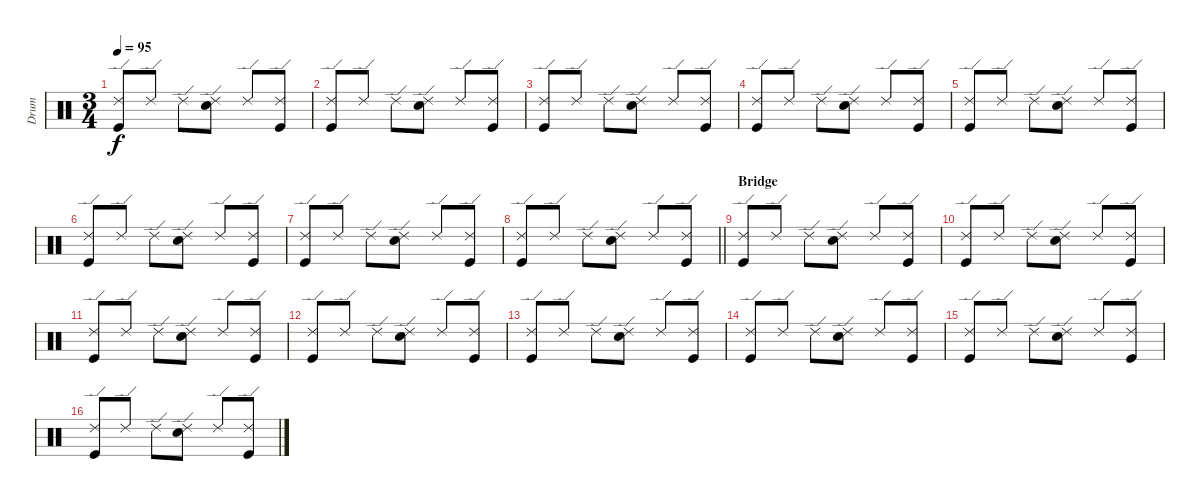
\track ("Drum" "Drum") {instrument percussion}
\staff {score}
\articulation defaults
\ts (3 4)
\tempo 95
\clef neutral
\ks c
("Kick (hit)" "Ride (edge) 2").8{dy f} "Ride (edge) 2".8 "Ride (edge) 2".8 ("Snare (hit) 2" "Ride (edge) 2").8 "Ride (edge) 2".8 ("Kick (hit)" "Ride (edge) 2").8 |
("Kick (hit)" "Ride (edge) 2").8 "Ride (edge) 2".8 "Ride (edge) 2".8 ("Snare (hit) 2" "Ride (edge) 2").8 "Ride (edge) 2".8 ("Kick (hit)" "Ride (edge) 2").8 |
("Kick (hit)" "Ride (edge) 2").8 "Ride (edge) 2".8 "Ride (edge) 2".8 ("Snare (hit) 2" "Ride (edge) 2").8 "Ride (edge) 2".8 ("Kick (hit)" "Ride (edge) 2").8 |
("Kick (hit)" "Ride (edge) 2").8 "Ride (edge) 2".8 "Ride (edge) 2".8 ("Snare (hit) 2" "Ride (edge) 2").8 "Ride (edge) 2".8 ("Kick (hit)" "Ride (edge) 2").8 |
("Kick (hit)" "Ride (edge) 2").8 "Ride (edge) 2".8 "Ride (edge) 2".8 ("Snare (hit) 2" "Ride (edge) 2").8 "Ride (edge) 2".8 ("Kick (hit)" "Ride (edge) 2").8 |
("Kick (hit)" "Ride (edge) 2").8 "Ride (edge) 2".8 "Ride (edge) 2".8 ("Snare (hit) 2" "Ride (edge) 2").8 "Ride (edge) 2".8 ("Kick (hit)" "Ride (edge) 2").8 |
("Kick (hit)" "Ride (edge) 2").8 "Ride (edge) 2".8 "Ride (edge) 2".8 ("Snare (hit) 2" "Ride (edge) 2").8 "Ride (edge) 2".8 ("Kick (hit)" "Ride (edge) 2").8 |
\barLineRight lightlight
("Kick (hit)" "Ride (edge) 2").8 "Ride (edge) 2".8 "Ride (edge) 2".8 ("Snare (hit) 2" "Ride (edge) 2").8 "Ride (edge) 2".8 ("Kick (hit)" "Ride (edge) 2").8 |
\section ("" "Bridge")
("Kick (hit)" "Ride (edge) 2").8 "Ride (edge) 2".8 "Ride (edge) 2".8 ("Snare (hit) 2" "Ride (edge) 2").8 "Ride (edge) 2".8 ("Kick (hit)" "Ride (edge) 2").8 |
("Kick (hit)" "Ride (edge) 2").8 "Ride (edge) 2".8 "Ride (edge) 2".8 ("Snare (hit) 2" "Ride (edge) 2").8 "Ride (edge) 2".8 ("Kick (hit)" "Ride (edge) 2").8 |
("Kick (hit)" "Ride (edge) 2").8 "Ride (edge) 2".8 "Ride (edge) 2".8 ("Snare (hit) 2" "Ride (edge) 2").8 "Ride (edge) 2".8 ("Kick (hit)" "Ride (edge) 2").8 |
("Kick (hit)" "Ride (edge) 2").8 "Ride (edge) 2".8 "Ride (edge) 2".8 ("Snare (hit) 2" "Ride (edge) 2").8 "Ride (edge) 2".8 ("Kick (hit)" "Ride (edge) 2").8 |
("Kick (hit)" "Ride (edge) 2").8 "Ride (edge) 2".8 "Ride (edge) 2".8 ("Snare (hit) 2" "Ride (edge) 2").8 "Ride (edge) 2".8 ("Kick (hit)" "Ride (edge) 2").8 |
("Kick (hit)" "Ride (edge) 2").8 "Ride (edge) 2".8 "Ride (edge) 2".8 ("Snare (hit) 2" "Ride (edge) 2").8 "Ride (edge) 2".8 ("Kick (hit)" "Ride (edge) 2").8 |
("Kick (hit)" "Ride (edge) 2").8 "Ride (edge) 2".8 "Ride (edge) 2".8 ("Snare (hit) 2" "Ride (edge) 2").8 "Ride (edge) 2".8 ("Kick (hit)" "Ride (edge) 2").8 |
("Kick (hit)" "Ride (edge) 2").8 "Ride (edge) 2".8 "Ride (edge) 2".8 ("Snare (hit) 2" "Ride (edge) 2").8 "Ride (edge) 2".8 ("Kick (hit)" "Ride (edge) 2").8
